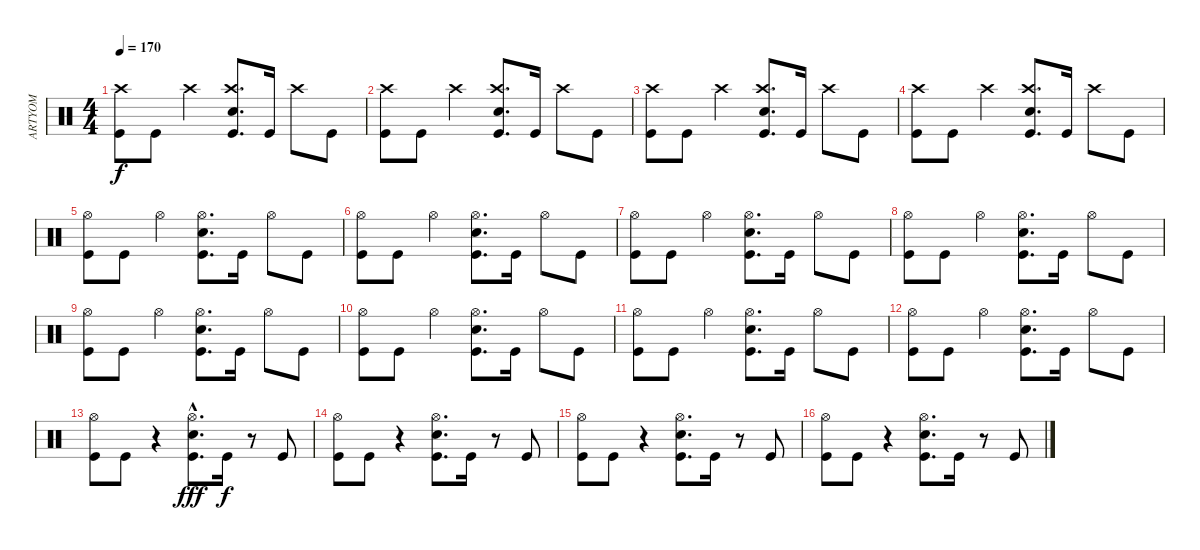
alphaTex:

\track ("ARTYOM" "ARTYOM") {instrument percussion}
\staff {score}
\articulation defaults
\ts (4 4)
\tempo 170
\clef neutral
\ks c
("Kick (hit)" "Crash high (hit)").8{dy f} "Kick (hit)".8 "Crash high (hit)".4 ("Crash high (hit)" "Kick (hit)" "Snare (hit) 2").8{d} "Kick (hit)".16 "Crash high (hit)".8 "Kick (hit)".8 |
("Kick (hit)" "Crash high (hit)").8 "Kick (hit)".8 "Crash high (hit)".4 ("Crash high (hit)" "Kick (hit)" "Snare (hit) 2").8{d} "Kick (hit)".16 "Crash high (hit)".8 "Kick (hit)".8 |
("Kick (hit)" "Crash high (hit)").8 "Kick (hit)".8 "Crash high (hit)".4 ("Crash high (hit)" "Kick (hit)" "Snare (hit) 2").8{d} "Kick (hit)".16 "Crash high (hit)".8 "Kick (hit)".8 |
("Kick (hit)" "Crash high (hit)").8 "Kick (hit)".8 "Crash high (hit)".4 ("Crash high (hit)" "Kick (hit)" "Snare (hit) 2").8{d} "Kick (hit)".16 "Crash high (hit)".8 "Kick (hit)".8 |
("Kick (hit)" "Hi-Hat (open)").8 "Kick (hit)".8 "Hi-Hat (open)".4 ("Hi-Hat (open)" "Kick (hit)" "Snare (hit) 2").8{d} "Kick (hit)".16 "Hi-Hat (open)".8 "Kick (hit)".8 |
("Kick (hit)" "Hi-Hat (open)").8 "Kick (hit)".8 "Hi-Hat (open)".4 ("Hi-Hat (open)" "Kick (hit)" "Snare (hit) 2").8{d} "Kick (hit)".16 "Hi-Hat (open)".8 "Kick (hit)".8 |
("Kick (hit)" "Hi-Hat (open)").8 "Kick (hit)".8 "Hi-Hat (open)".4 ("Hi-Hat (open)" "Kick (hit)" "Snare (hit) 2").8{d} "Kick (hit)".16 "Hi-Hat (open)".8 "Kick (hit)".8 |
("Kick (hit)" "Hi-Hat (open)").8 "Kick (hit)".8 "Hi-Hat (open)".4 ("Hi-Hat (open)" "Kick (hit)" "Snare (hit) 2").8{d} "Kick (hit)".16 "Hi-Hat (open)".8 "Kick (hit)".8 |
("Kick (hit)" "Hi-Hat (open)").8 "Kick (hit)".8 "Hi-Hat (open)".4 ("Hi-Hat (open)" "Kick (hit)" "Snare (hit) 2").8{d} "Kick (hit)".16 "Hi-Hat (open)".8 "Kick (hit)".8 |
("Kick (hit)" "Hi-Hat (open)").8 "Kick (hit)".8 "Hi-Hat (open)".4 ("Hi-Hat (open)" "Kick (hit)" "Snare (hit) 2").8{d} "Kick (hit)".16 "Hi-Hat (open)".8 "Kick (hit)".8 |
("Kick (hit)" "Hi-Hat (open)").8 "Kick (hit)".8 "Hi-Hat (open)".4 ("Hi-Hat (open)" "Kick (hit)" "Snare (hit) 2").8{d} "Kick (hit)".16 "Hi-Hat (open)".8 "Kick (hit)".8 |
("Kick (hit)" "Hi-Hat (open)").8 "Kick (hit)".8 "Hi-Hat (open)".4 ("Hi-Hat (open)" "Kick (hit)" "Snare (hit) 2").8{d} "Kick (hit)".16 "Hi-Hat (open)".8 "Kick (hit)".8 |
("Kick (hit)" "Hi-Hat (open)").8 "Kick (hit)".8 r.4 ("Hi-Hat (open)" "Kick (hit)"{hac} "Snare (hit) 2").8{d dy fff} "Kick (hit)".16{dy f} r.8 "Kick (hit)".8 |
("Kick (hit)" "Hi-Hat (open)").8 "Kick (hit)".8 r.4 ("Hi-Hat (open)" "Kick (hit)" "Snare (hit) 2").8{d} "Kick (hit)".16 r.8 "Kick (hit)".8 |
("Kick (hit)" "Hi-Hat (open)").8 "Kick (hit)".8 r.4 ("Hi-Hat (open)" "Kick (hit)" "Snare (hit) 2").8{d} "Kick (hit)".16 r.8 "Kick (hit)".8 |
("Kick (hit)" "Hi-Hat (open)").8 "Kick (hit)".8 r.4 ("Hi-Hat (open)" "Kick (hit)" "Snare (hit) 2").8{d} "Kick (hit)".16 r.8 "Kick (hit)".8
